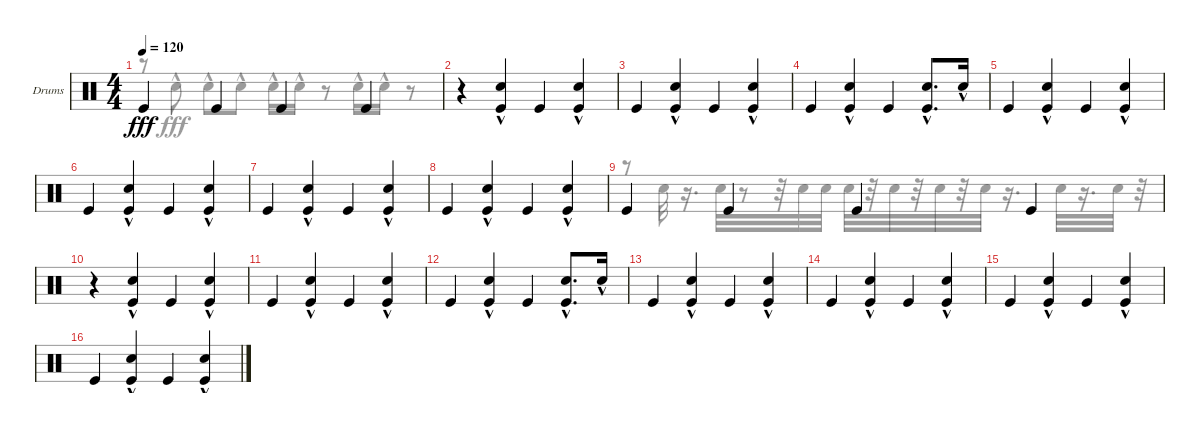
\defaultSystemsLayout 4
\bracketExtendMode nobrackets
\firstSystemTrackNameOrientation horizontal
\otherSystemsTrackNameOrientation horizontal
\track ("Drumkit" "Drums") {instrument percussion}
\staff {score}
\articulation defaults
\voice
\ts (4 4)
\tempo 120
\clef neutral
\ks c "Kick (hit)".4{dy fff} "Kick (hit)".4 "Kick (hit)".4 "Kick (hit)".4
|
r.4 ("Kick (hit)" "Snare (hit) 2"{hac}).4 "Kick (hit)".4 ("Kick (hit)" "Snare (hit) 2"{hac}).4 |
"Kick (hit)".4 ("Kick (hit)" "Snare (hit) 2"{hac}).4 "Kick (hit)".4 ("Kick (hit)" "Snare (hit) 2"{hac}).4 |
"Kick (hit)".4 ("Kick (hit)" "Snare (hit) 2"{hac}).4 "Kick (hit)".4 ("Kick (hit)" "Snare (hit) 2"{hac}).8{d} "Snare (hit) 2"{hac}.16 |
"Kick (hit)".4 ("Kick (hit)" "Snare (hit) 2"{hac}).4 "Kick (hit)".4 ("Kick (hit)" "Snare (hit) 2"{hac}).4 |
"Kick (hit)".4 ("Kick (hit)" "Snare (hit) 2"{hac}).4 "Kick (hit)".4 ("Kick (hit)" "Snare (hit) 2"{hac}).4 |
"Kick (hit)".4 ("Kick (hit)" "Snare (hit) 2"{hac}).4 "Kick (hit)".4 ("Kick (hit)" "Snare (hit) 2"{hac}).4 |
"Kick (hit)".4 ("Kick (hit)" "Snare (hit) 2"{hac}).4 "Kick (hit)".4 ("Kick (hit)" "Snare (hit) 2"{hac}).4 |
"Kick (hit)".4 "Kick (hit)".4 "Kick (hit)".4 "Kick (hit)".4 |
r.4 ("Kick (hit)" "Snare (hit) 2"{hac}).4 "Kick (hit)".4 ("Kick (hit)" "Snare (hit) 2"{hac}).4 |
"Kick (hit)".4 ("Kick (hit)" "Snare (hit) 2"{hac}).4 "Kick (hit)".4 ("Kick (hit)" "Snare (hit) 2"{hac}).4 |
"Kick (hit)".4 ("Kick (hit)" "Snare (hit) 2"{hac}).4 "Kick (hit)".4 ("Kick (hit)" "Snare (hit) 2"{hac}).8{d} "Snare (hit) 2"{hac}.16 |
"Kick (hit)".4 ("Kick (hit)" "Snare (hit) 2"{hac}).4 "Kick (hit)".4 ("Kick (hit)" "Snare (hit) 2"{hac}).4 |
"Kick (hit)".4 ("Kick (hit)" "Snare (hit) 2"{hac}).4 "Kick (hit)".4 ("Kick (hit)" "Snare (hit) 2"{hac}).4 |
"Kick (hit)".4 ("Kick (hit)" "Snare (hit) 2"{hac}).4 "Kick (hit)".4 ("Kick (hit)" "Snare (hit) 2"{hac}).4 |
"Kick (hit)".4 ("Kick (hit)" "Snare (hit) 2"{hac}).4 "Kick (hit)".4 ("Kick (hit)" "Snare (hit) 2"{hac}).4
\voice
\clef neutral
\ottava regular
\simile none
\ks c
r.8{dy fff} "Snare (hit) 2"{hac}.8 "Snare (hit) 2"{hac}.8 "Snare (hit) 2"{hac}.8 "Snare (hit) 2"{hac}.16 "Snare (hit) 2"{hac}.16 r.8 "Snare (hit) 2"{hac}.16 "Snare (hit) 2"{hac}.16 r.8 |
|
|
|
|
|
|
|
r.8 "Snare (hit) 2".32 r.16{d} "Snare (hit) 2".32 r.8 r.32 "Snare (hit) 2".32 "Snare (hit) 2".32 "Snare (hit) 2".32 r.32 "Snare (hit) 2".32 r.32 "Snare (hit) 2".32 r.32 "Snare (hit) 2".32 r.16{d} "Snare (hit) 2".32 r.16{d} "Snare (hit) 2".32 r.32 |
|
|
|
|
|
|
